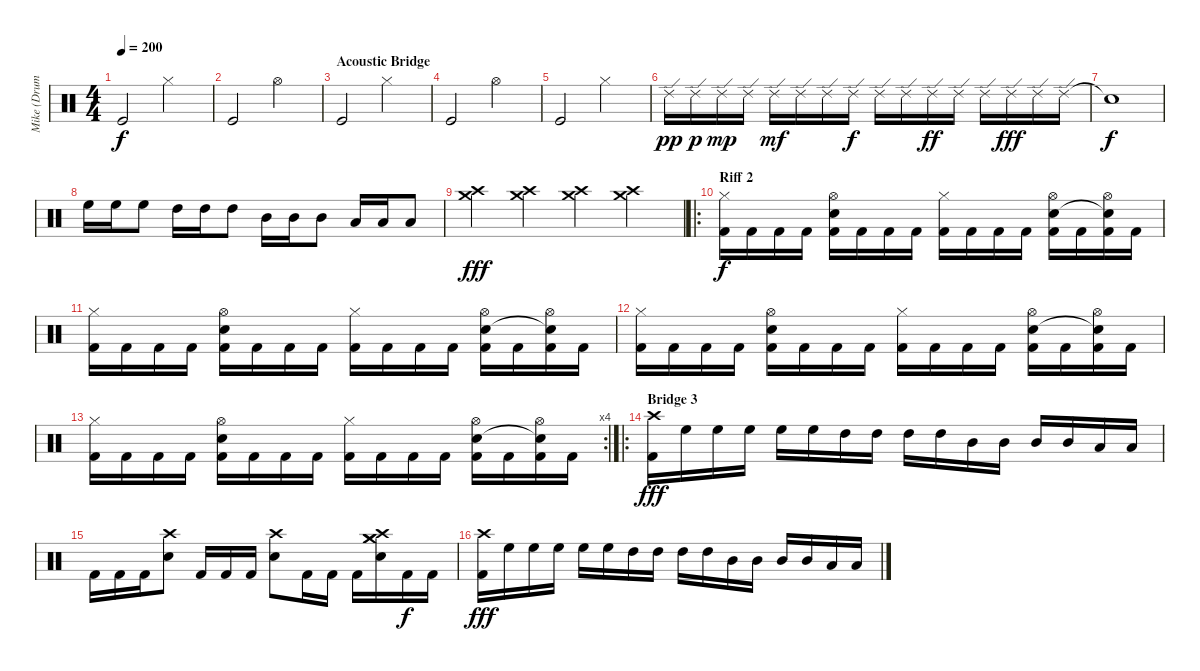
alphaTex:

\track ("Mike (Drums)" "Mike (Drum") {instrument percussion}
\staff {score}
\articulation defaults
\ts (4 4)
\tempo 200
\clef neutral
\ks c "Kick (hit)".2{dy f} "Hi-Hat (closed)".2
|
"Kick (hit)".2 "Hi-Hat (open)".2 |
\section ("" "Acoustic Bridge")
"Kick (hit)".2 "Hi-Hat (closed)".2 |
"Kick (hit)".2 "Hi-Hat (open)".2 |
"Kick (hit)".2 "Hi-Hat (closed)".2 |
"Ride (edge) 2".16{dy pp} "Ride (edge) 2".16{dy p} "Ride (edge) 2".16{dy mp} "Ride (edge) 2".16 "Ride (edge) 2".16{dy mf} "Ride (edge) 2".16 "Ride (edge) 2".16 "Ride (edge) 2".16{dy f} "Ride (edge) 2".16 "Ride (edge) 2".16 "Ride (edge) 2".16{dy ff} "Ride (edge) 2".16 "Ride (edge) 2".16 "Ride (edge) 2".16{dy fff} "Ride (edge) 2".16 "Ride (edge) 2".16 |
"Snare (hit)"{t}.1{dy f} |
"High Floor Tom (hit)".16 "High Floor Tom (hit)".16 "High Floor Tom (hit)".8 "High Tom (hit)".16 "High Tom (hit)".16 "High Tom (hit)".8 "Mid Tom (hit)".16 "Mid Tom (hit)".16 "Mid Tom (hit)".8 "Low Tom (hit)".16 "Low Tom (hit)".16 "Low Tom (hit)".8 |
("Crash high (hit)" "Crash medium (hit)").4{dy fff} ("Crash high (hit)" "Crash medium (hit)").4 ("Crash high (hit)" "Crash medium (hit)").4 ("Crash high (hit)" "Crash medium (hit)").4 |
\ro
\section ("" "Riff 2")
("Hi-Hat (closed)" "Kick (hit) 2").16{dy f} "Kick (hit) 2".16 "Kick (hit) 2".16 "Kick (hit) 2".16 ("Hi-Hat (open)" "Snare (hit) 2" "Kick (hit) 2").16 "Kick (hit) 2".16 "Kick (hit) 2".16 "Kick (hit) 2".16 ("Hi-Hat (closed)" "Kick (hit) 2").16 "Kick (hit) 2".16 "Kick (hit) 2".16 "Kick (hit) 2".16 ("Hi-Hat (open)" "Snare (hit) 2" "Kick (hit) 2").16 "Kick (hit) 2".16 ("Hi-Hat (open)" "Snare (hit)"{t} "Kick (hit) 2").16 "Kick (hit) 2".16 |
("Hi-Hat (closed)" "Kick (hit) 2").16 "Kick (hit) 2".16 "Kick (hit) 2".16 "Kick (hit) 2".16 ("Hi-Hat (open)" "Snare (hit) 2" "Kick (hit) 2").16 "Kick (hit) 2".16 "Kick (hit) 2".16 "Kick (hit) 2".16 ("Hi-Hat (closed)" "Kick (hit) 2").16 "Kick (hit) 2".16 "Kick (hit) 2".16 "Kick (hit) 2".16 ("Hi-Hat (open)" "Snare (hit) 2" "Kick (hit) 2").16 "Kick (hit) 2".16 ("Hi-Hat (open)" "Snare (hit)"{t} "Kick (hit) 2").16 "Kick (hit) 2".16 |
("Hi-Hat (closed)" "Kick (hit) 2").16 "Kick (hit) 2".16 "Kick (hit) 2".16 "Kick (hit) 2".16 ("Hi-Hat (open)" "Snare (hit) 2" "Kick (hit) 2").16 "Kick (hit) 2".16 "Kick (hit) 2".16 "Kick (hit) 2".16 ("Hi-Hat (closed)" "Kick (hit) 2").16 "Kick (hit) 2".16 "Kick (hit) 2".16 "Kick (hit) 2".16 ("Hi-Hat (open)" "Snare (hit) 2" "Kick (hit) 2").16 "Kick (hit) 2".16 ("Hi-Hat (open)" "Snare (hit)"{t} "Kick (hit) 2").16 "Kick (hit) 2".16 |
\rc 4
("Hi-Hat (closed)" "Kick (hit) 2").16 "Kick (hit) 2".16 "Kick (hit) 2".16 "Kick (hit) 2".16 ("Hi-Hat (open)" "Snare (hit) 2" "Kick (hit) 2").16 "Kick (hit) 2".16 "Kick (hit) 2".16 "Kick (hit) 2".16 ("Hi-Hat (closed)" "Kick (hit) 2").16 "Kick (hit) 2".16 "Kick (hit) 2".16 "Kick (hit) 2".16 ("Hi-Hat (open)" "Snare (hit) 2" "Kick (hit) 2").16 "Kick (hit) 2".16 ("Hi-Hat (open)" "Snare (hit)"{t} "Kick (hit) 2").16 "Kick (hit) 2".16 |
\ro
\section ("" "Bridge 3")
("Crash high (hit)" "Kick (hit) 2").16{dy fff} "High Floor Tom (hit)".16 "High Floor Tom (hit)".16 "High Floor Tom (hit)".16 "High Floor Tom (hit)".16 "High Floor Tom (hit)".16 "High Tom (hit)".16 "High Tom (hit)".16 "High Tom (hit)".16 "High Tom (hit)".16 "Mid Tom (hit)".16 "Mid Tom (hit)".16 "Mid Tom (hit)".16 "Mid Tom (hit)".16 "Low Tom (hit)".16 "Low Tom (hit)".16 |
"Kick (hit) 2".16 "Kick (hit) 2".16 "Kick (hit) 2".16 ("Snare (hit) 2" "Crash high (hit)").8 "Kick (hit) 2".16 "Kick (hit) 2".16 "Kick (hit) 2".16 ("Snare (hit) 2" "Crash high (hit)").8 "Kick (hit) 2".16 "Kick (hit) 2".16 "Kick (hit) 2".16 ("Crash high (hit)" "Crash medium (hit)" "Snare (hit) 2" "Crash medium (hit)").16 "Kick (hit) 2".16{dy f} "Kick (hit) 2".16 |
("Crash high (hit)" "Kick (hit) 2").16{dy fff} "High Floor Tom (hit)".16 "High Floor Tom (hit)".16 "High Floor Tom (hit)".16 "High Floor Tom (hit)".16 "High Floor Tom (hit)".16 "High Tom (hit)".16 "High Tom (hit)".16 "High Tom (hit)".16 "High Tom (hit)".16 "Mid Tom (hit)".16 "Mid Tom (hit)".16 "Mid Tom (hit)".16 "Mid Tom (hit)".16 "Low Tom (hit)".16 "Low Tom (hit)".16
